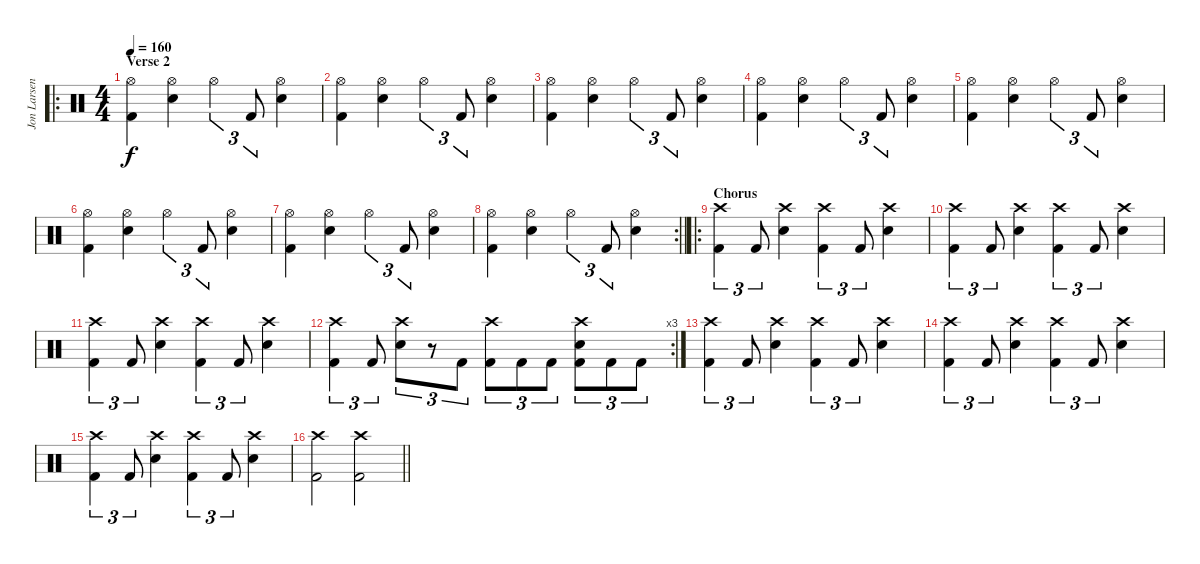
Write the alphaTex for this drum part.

\track ("Jon Larsen" "Jon Larsen") {instrument percussion}
\staff {score}
\articulation defaults
\ro
\ts (4 4)
\section ("" "Verse 2")
\tempo 160
\clef neutral
\ks c
("Hi-Hat (open)" "Kick (hit) 2").4{dy f} ("Hi-Hat (open)" "Electric Snare (hit)").4 "Hi-Hat (open)".4{tu (3 2)} "Kick (hit) 2".8{tu (3 2)} ("Hi-Hat (open)" "Electric Snare (hit)").4 |
("Hi-Hat (open)" "Kick (hit) 2").4 ("Hi-Hat (open)" "Electric Snare (hit)").4 "Hi-Hat (open)".4{tu (3 2)} "Kick (hit) 2".8{tu (3 2)} ("Hi-Hat (open)" "Electric Snare (hit)").4 |
("Hi-Hat (open)" "Kick (hit) 2").4 ("Hi-Hat (open)" "Electric Snare (hit)").4 "Hi-Hat (open)".4{tu (3 2)} "Kick (hit) 2".8{tu (3 2)} ("Hi-Hat (open)" "Electric Snare (hit)").4 |
("Hi-Hat (open)" "Kick (hit) 2").4 ("Hi-Hat (open)" "Electric Snare (hit)").4 "Hi-Hat (open)".4{tu (3 2)} "Kick (hit) 2".8{tu (3 2)} ("Hi-Hat (open)" "Electric Snare (hit)").4 |
("Hi-Hat (open)" "Kick (hit) 2").4 ("Hi-Hat (open)" "Electric Snare (hit)").4 "Hi-Hat (open)".4{tu (3 2)} "Kick (hit) 2".8{tu (3 2)} ("Hi-Hat (open)" "Electric Snare (hit)").4 |
("Hi-Hat (open)" "Kick (hit) 2").4 ("Hi-Hat (open)" "Electric Snare (hit)").4 "Hi-Hat (open)".4{tu (3 2)} "Kick (hit) 2".8{tu (3 2)} ("Hi-Hat (open)" "Electric Snare (hit)").4 |
("Hi-Hat (open)" "Kick (hit) 2").4 ("Hi-Hat (open)" "Electric Snare (hit)").4 "Hi-Hat (open)".4{tu (3 2)} "Kick (hit) 2".8{tu (3 2)} ("Hi-Hat (open)" "Electric Snare (hit)").4 |
\rc 2
\barLineRight lightlight
("Hi-Hat (open)" "Kick (hit) 2").4 ("Hi-Hat (open)" "Electric Snare (hit)").4 "Hi-Hat (open)".4{tu (3 2)} "Kick (hit) 2".8{tu (3 2)} ("Hi-Hat (open)" "Electric Snare (hit)").4 |
\ro
\section ("" "Chorus")
("Crash high (hit)" "Kick (hit) 2").4{tu (3 2)} "Kick (hit) 2".8{tu (3 2)} ("Crash high (hit)" "Electric Snare (hit)").4 ("Crash high (hit)" "Kick (hit) 2").4{tu (3 2)} "Kick (hit) 2".8{tu (3 2)} ("Crash high (hit)" "Electric Snare (hit)").4 |
("Crash high (hit)" "Kick (hit) 2").4{tu (3 2)} "Kick (hit) 2".8{tu (3 2)} ("Crash high (hit)" "Electric Snare (hit)").4 ("Crash high (hit)" "Kick (hit) 2").4{tu (3 2)} "Kick (hit) 2".8{tu (3 2)} ("Crash high (hit)" "Electric Snare (hit)").4 |
("Crash high (hit)" "Kick (hit) 2").4{tu (3 2)} "Kick (hit) 2".8{tu (3 2)} ("Crash high (hit)" "Electric Snare (hit)").4 ("Crash high (hit)" "Kick (hit) 2").4{tu (3 2)} "Kick (hit) 2".8{tu (3 2)} ("Crash high (hit)" "Electric Snare (hit)").4 |
\rc 3
("Crash high (hit)" "Kick (hit) 2").4{tu (3 2)} "Kick (hit) 2".8{tu (3 2)} ("Crash high (hit)" "Electric Snare (hit)").8{tu (3 2)} r.8{tu (3 2)} "Kick (hit) 2".8{tu (3 2)} ("Crash high (hit)" "Kick (hit) 2").8{tu (3 2)} "Kick (hit) 2".8{tu (3 2)} "Kick (hit) 2".8{tu (3 2)} ("Crash high (hit)" "Electric Snare (hit)" "Kick (hit) 2").8{tu (3 2)} "Kick (hit) 2".8{tu (3 2)} "Kick (hit) 2".8{tu (3 2)} |
("Crash high (hit)" "Kick (hit) 2").4{tu (3 2)} "Kick (hit) 2".8{tu (3 2)} ("Crash high (hit)" "Electric Snare (hit)").4 ("Crash high (hit)" "Kick (hit) 2").4{tu (3 2)} "Kick (hit) 2".8{tu (3 2)} ("Crash high (hit)" "Electric Snare (hit)").4 |
("Crash high (hit)" "Kick (hit) 2").4{tu (3 2)} "Kick (hit) 2".8{tu (3 2)} ("Crash high (hit)" "Electric Snare (hit)").4 ("Crash high (hit)" "Kick (hit) 2").4{tu (3 2)} "Kick (hit) 2".8{tu (3 2)} ("Crash high (hit)" "Electric Snare (hit)").4 |
("Crash high (hit)" "Kick (hit) 2").4{tu (3 2)} "Kick (hit) 2".8{tu (3 2)} ("Crash high (hit)" "Electric Snare (hit)").4 ("Crash high (hit)" "Kick (hit) 2").4{tu (3 2)} "Kick (hit) 2".8{tu (3 2)} ("Crash high (hit)" "Electric Snare (hit)").4 |
\barLineRight lightlight
("Crash high (hit)" "Kick (hit) 2").2 ("Crash high (hit)" "Kick (hit) 2").2
